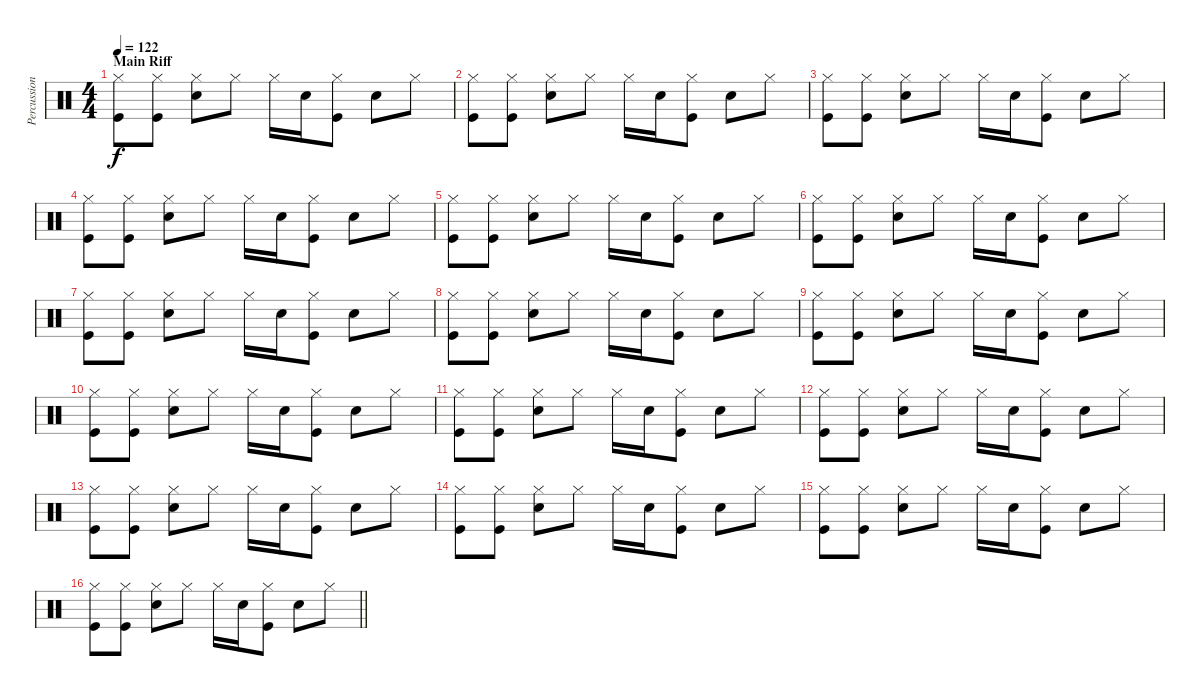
\track ("Percussion" "Percussion") {instrument percussion}
\staff {score}
\articulation defaults
\ts (4 4)
\section ("" "Main Riff")
\tempo 122
\clef neutral
\ks c
("Hi-Hat (closed)" "Kick (hit)").8{dy f} ("Hi-Hat (closed)" "Kick (hit)").8 ("Hi-Hat (closed)" "Snare (hit) 2").8 "Hi-Hat (closed)".8 "Hi-Hat (closed)".16 "Snare (hit) 2".16 ("Hi-Hat (closed)" "Kick (hit)").8 "Snare (hit) 2".8 "Hi-Hat (closed)".8 |
("Hi-Hat (closed)" "Kick (hit)").8 ("Hi-Hat (closed)" "Kick (hit)").8 ("Hi-Hat (closed)" "Snare (hit) 2").8 "Hi-Hat (closed)".8 "Hi-Hat (closed)".16 "Snare (hit) 2".16 ("Hi-Hat (closed)" "Kick (hit)").8 "Snare (hit) 2".8 "Hi-Hat (closed)".8 |
("Hi-Hat (closed)" "Kick (hit)").8 ("Hi-Hat (closed)" "Kick (hit)").8 ("Hi-Hat (closed)" "Snare (hit) 2").8 "Hi-Hat (closed)".8 "Hi-Hat (closed)".16 "Snare (hit) 2".16 ("Hi-Hat (closed)" "Kick (hit)").8 "Snare (hit) 2".8 "Hi-Hat (closed)".8 |
("Hi-Hat (closed)" "Kick (hit)").8 ("Hi-Hat (closed)" "Kick (hit)").8 ("Hi-Hat (closed)" "Snare (hit) 2").8 "Hi-Hat (closed)".8 "Hi-Hat (closed)".16 "Snare (hit) 2".16 ("Hi-Hat (closed)" "Kick (hit)").8 "Snare (hit) 2".8 "Hi-Hat (closed)".8 |
("Hi-Hat (closed)" "Kick (hit)").8 ("Hi-Hat (closed)" "Kick (hit)").8 ("Hi-Hat (closed)" "Snare (hit) 2").8 "Hi-Hat (closed)".8 "Hi-Hat (closed)".16 "Snare (hit) 2".16 ("Hi-Hat (closed)" "Kick (hit)").8 "Snare (hit) 2".8 "Hi-Hat (closed)".8 |
("Hi-Hat (closed)" "Kick (hit)").8 ("Hi-Hat (closed)" "Kick (hit)").8 ("Hi-Hat (closed)" "Snare (hit) 2").8 "Hi-Hat (closed)".8 "Hi-Hat (closed)".16 "Snare (hit) 2".16 ("Hi-Hat (closed)" "Kick (hit)").8 "Snare (hit) 2".8 "Hi-Hat (closed)".8 |
("Hi-Hat (closed)" "Kick (hit)").8 ("Hi-Hat (closed)" "Kick (hit)").8 ("Hi-Hat (closed)" "Snare (hit) 2").8 "Hi-Hat (closed)".8 "Hi-Hat (closed)".16 "Snare (hit) 2".16 ("Hi-Hat (closed)" "Kick (hit)").8 "Snare (hit) 2".8 "Hi-Hat (closed)".8 |
("Hi-Hat (closed)" "Kick (hit)").8 ("Hi-Hat (closed)" "Kick (hit)").8 ("Hi-Hat (closed)" "Snare (hit) 2").8 "Hi-Hat (closed)".8 "Hi-Hat (closed)".16 "Snare (hit) 2".16 ("Hi-Hat (closed)" "Kick (hit)").8 "Snare (hit) 2".8 "Hi-Hat (closed)".8 |
("Hi-Hat (closed)" "Kick (hit)").8 ("Hi-Hat (closed)" "Kick (hit)").8 ("Hi-Hat (closed)" "Snare (hit) 2").8 "Hi-Hat (closed)".8 "Hi-Hat (closed)".16 "Snare (hit) 2".16 ("Hi-Hat (closed)" "Kick (hit)").8 "Snare (hit) 2".8 "Hi-Hat (closed)".8 |
("Hi-Hat (closed)" "Kick (hit)").8 ("Hi-Hat (closed)" "Kick (hit)").8 ("Hi-Hat (closed)" "Snare (hit) 2").8 "Hi-Hat (closed)".8 "Hi-Hat (closed)".16 "Snare (hit) 2".16 ("Hi-Hat (closed)" "Kick (hit)").8 "Snare (hit) 2".8 "Hi-Hat (closed)".8 |
("Hi-Hat (closed)" "Kick (hit)").8 ("Hi-Hat (closed)" "Kick (hit)").8 ("Hi-Hat (closed)" "Snare (hit) 2").8 "Hi-Hat (closed)".8 "Hi-Hat (closed)".16 "Snare (hit) 2".16 ("Hi-Hat (closed)" "Kick (hit)").8 "Snare (hit) 2".8 "Hi-Hat (closed)".8 |
("Hi-Hat (closed)" "Kick (hit)").8 ("Hi-Hat (closed)" "Kick (hit)").8 ("Hi-Hat (closed)" "Snare (hit) 2").8 "Hi-Hat (closed)".8 "Hi-Hat (closed)".16 "Snare (hit) 2".16 ("Hi-Hat (closed)" "Kick (hit)").8 "Snare (hit) 2".8 "Hi-Hat (closed)".8 |
("Hi-Hat (closed)" "Kick (hit)").8 ("Hi-Hat (closed)" "Kick (hit)").8 ("Hi-Hat (closed)" "Snare (hit) 2").8 "Hi-Hat (closed)".8 "Hi-Hat (closed)".16 "Snare (hit) 2".16 ("Hi-Hat (closed)" "Kick (hit)").8 "Snare (hit) 2".8 "Hi-Hat (closed)".8 |
("Hi-Hat (closed)" "Kick (hit)").8 ("Hi-Hat (closed)" "Kick (hit)").8 ("Hi-Hat (closed)" "Snare (hit) 2").8 "Hi-Hat (closed)".8 "Hi-Hat (closed)".16 "Snare (hit) 2".16 ("Hi-Hat (closed)" "Kick (hit)").8 "Snare (hit) 2".8 "Hi-Hat (closed)".8 |
("Hi-Hat (closed)" "Kick (hit)").8 ("Hi-Hat (closed)" "Kick (hit)").8 ("Hi-Hat (closed)" "Snare (hit) 2").8 "Hi-Hat (closed)".8 "Hi-Hat (closed)".16 "Snare (hit) 2".16 ("Hi-Hat (closed)" "Kick (hit)").8 "Snare (hit) 2".8 "Hi-Hat (closed)".8 |
\barLineRight lightlight
("Hi-Hat (closed)" "Kick (hit)").8 ("Hi-Hat (closed)" "Kick (hit)").8 ("Hi-Hat (closed)" "Snare (hit) 2").8 "Hi-Hat (closed)".8 "Hi-Hat (closed)".16 "Snare (hit) 2".16 ("Hi-Hat (closed)" "Kick (hit)").8 "Snare (hit) 2".8 "Hi-Hat (closed)".8
